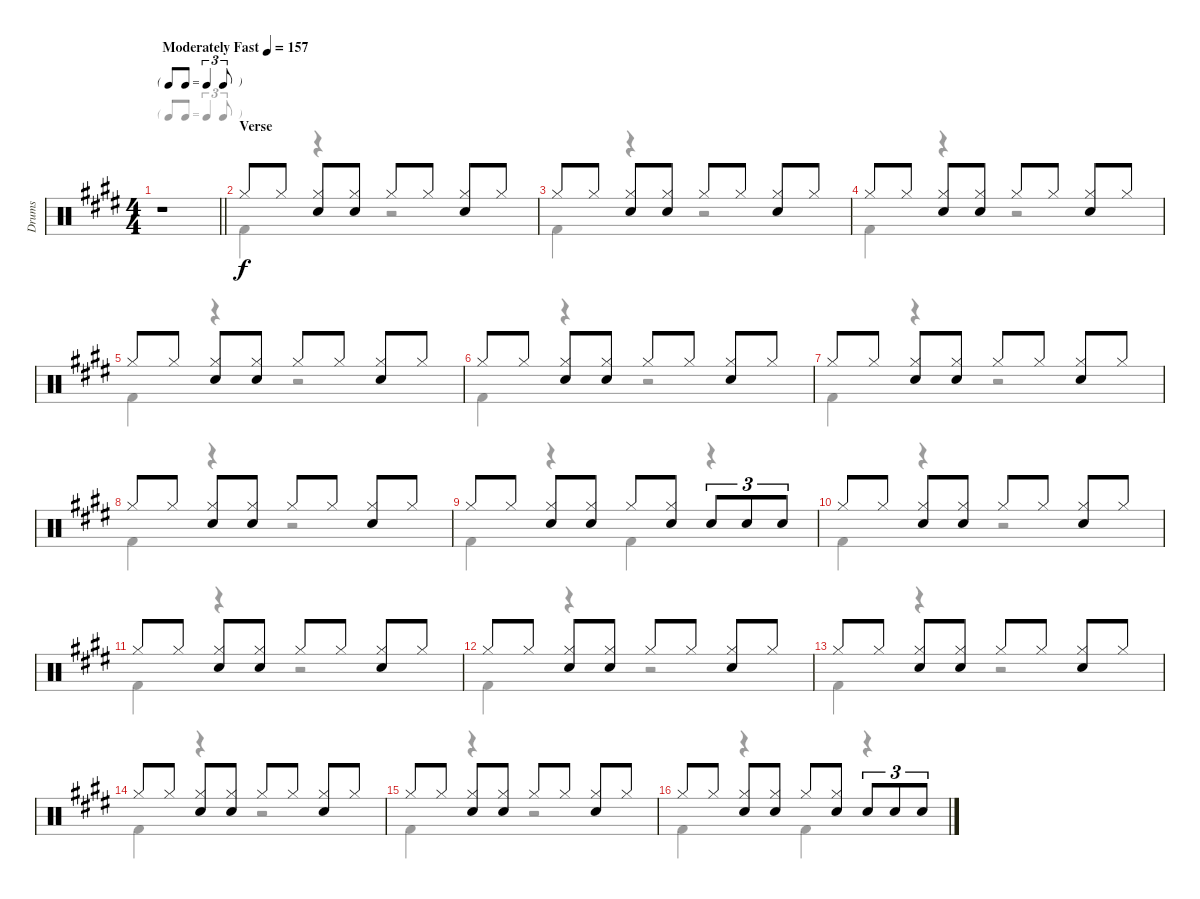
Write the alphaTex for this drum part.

\track ("Drums" "Drums") {instrument percussion}
\staff {score}
\articulation defaults
\voice
\ts (4 4)
\tf triplet8th
\tempo (157 "Moderately Fast")
\clef neutral
\barLineRight lightlight
\ks e
r.1{dy f} |
\section ("" "Verse")
"Hi-Hat (closed)".8 "Hi-Hat (closed)".8 ("Hi-Hat (closed)" "Snare (hit) 2").8 ("Hi-Hat (closed)" "Snare (hit) 2").8 "Hi-Hat (closed)".8 "Hi-Hat (closed)".8 ("Hi-Hat (closed)" "Snare (hit) 2").8 "Hi-Hat (closed)".8 |
"Hi-Hat (closed)".8 "Hi-Hat (closed)".8 ("Hi-Hat (closed)" "Snare (hit) 2").8 ("Hi-Hat (closed)" "Snare (hit) 2").8 "Hi-Hat (closed)".8 "Hi-Hat (closed)".8 ("Hi-Hat (closed)" "Snare (hit) 2").8 "Hi-Hat (closed)".8 |
"Hi-Hat (closed)".8 "Hi-Hat (closed)".8 ("Hi-Hat (closed)" "Snare (hit) 2").8 ("Hi-Hat (closed)" "Snare (hit) 2").8 "Hi-Hat (closed)".8 "Hi-Hat (closed)".8 ("Hi-Hat (closed)" "Snare (hit) 2").8 "Hi-Hat (closed)".8 |
"Hi-Hat (closed)".8 "Hi-Hat (closed)".8 ("Hi-Hat (closed)" "Snare (hit) 2").8 ("Hi-Hat (closed)" "Snare (hit) 2").8 "Hi-Hat (closed)".8 "Hi-Hat (closed)".8 ("Hi-Hat (closed)" "Snare (hit) 2").8 "Hi-Hat (closed)".8 |
"Hi-Hat (closed)".8 "Hi-Hat (closed)".8 ("Hi-Hat (closed)" "Snare (hit) 2").8 ("Hi-Hat (closed)" "Snare (hit) 2").8 "Hi-Hat (closed)".8 "Hi-Hat (closed)".8 ("Hi-Hat (closed)" "Snare (hit) 2").8 "Hi-Hat (closed)".8 |
"Hi-Hat (closed)".8 "Hi-Hat (closed)".8 ("Hi-Hat (closed)" "Snare (hit) 2").8 ("Hi-Hat (closed)" "Snare (hit) 2").8 "Hi-Hat (closed)".8 "Hi-Hat (closed)".8 ("Hi-Hat (closed)" "Snare (hit) 2").8 "Hi-Hat (closed)".8 |
"Hi-Hat (closed)".8 "Hi-Hat (closed)".8 ("Hi-Hat (closed)" "Snare (hit) 2").8 ("Hi-Hat (closed)" "Snare (hit) 2").8 "Hi-Hat (closed)".8 "Hi-Hat (closed)".8 ("Hi-Hat (closed)" "Snare (hit) 2").8 "Hi-Hat (closed)".8 |
"Hi-Hat (closed)".8 "Hi-Hat (closed)".8 ("Hi-Hat (closed)" "Snare (hit) 2").8 ("Hi-Hat (closed)" "Snare (hit) 2").8 "Hi-Hat (closed)".8 ("Hi-Hat (closed)" "Snare (hit) 2").8 "Snare (hit) 2".8{tu (3 2)} "Snare (hit) 2".8{tu (3 2)} "Snare (hit) 2".8{tu (3 2)} |
"Hi-Hat (closed)".8 "Hi-Hat (closed)".8 ("Hi-Hat (closed)" "Snare (hit) 2").8 ("Hi-Hat (closed)" "Snare (hit) 2").8 "Hi-Hat (closed)".8 "Hi-Hat (closed)".8 ("Hi-Hat (closed)" "Snare (hit) 2").8 "Hi-Hat (closed)".8 |
"Hi-Hat (closed)".8 "Hi-Hat (closed)".8 ("Hi-Hat (closed)" "Snare (hit) 2").8 ("Hi-Hat (closed)" "Snare (hit) 2").8 "Hi-Hat (closed)".8 "Hi-Hat (closed)".8 ("Hi-Hat (closed)" "Snare (hit) 2").8 "Hi-Hat (closed)".8 |
"Hi-Hat (closed)".8 "Hi-Hat (closed)".8 ("Hi-Hat (closed)" "Snare (hit) 2").8 ("Hi-Hat (closed)" "Snare (hit) 2").8 "Hi-Hat (closed)".8 "Hi-Hat (closed)".8 ("Hi-Hat (closed)" "Snare (hit) 2").8 "Hi-Hat (closed)".8 |
"Hi-Hat (closed)".8 "Hi-Hat (closed)".8 ("Hi-Hat (closed)" "Snare (hit) 2").8 ("Hi-Hat (closed)" "Snare (hit) 2").8 "Hi-Hat (closed)".8 "Hi-Hat (closed)".8 ("Hi-Hat (closed)" "Snare (hit) 2").8 "Hi-Hat (closed)".8 |
"Hi-Hat (closed)".8 "Hi-Hat (closed)".8 ("Hi-Hat (closed)" "Snare (hit) 2").8 ("Hi-Hat (closed)" "Snare (hit) 2").8 "Hi-Hat (closed)".8 "Hi-Hat (closed)".8 ("Hi-Hat (closed)" "Snare (hit) 2").8 "Hi-Hat (closed)".8 |
"Hi-Hat (closed)".8 "Hi-Hat (closed)".8 ("Hi-Hat (closed)" "Snare (hit) 2").8 ("Hi-Hat (closed)" "Snare (hit) 2").8 "Hi-Hat (closed)".8 "Hi-Hat (closed)".8 ("Hi-Hat (closed)" "Snare (hit) 2").8 "Hi-Hat (closed)".8 |
"Hi-Hat (closed)".8 "Hi-Hat (closed)".8 ("Hi-Hat (closed)" "Snare (hit) 2").8 ("Hi-Hat (closed)" "Snare (hit) 2").8 "Hi-Hat (closed)".8 ("Hi-Hat (closed)" "Snare (hit) 2").8 "Snare (hit) 2".8{tu (3 2)} "Snare (hit) 2".8{tu (3 2)} "Snare (hit) 2".8{tu (3 2)}
\voice
\clef neutral
\ottava regular
\simile none
\barLineRight lightlight
\ks e
r.1{dy f} |
"Kick (hit) 2".4 r.4 r.2 |
"Kick (hit) 2".4 r.4 r.2 |
"Kick (hit) 2".4 r.4 r.2 |
"Kick (hit) 2".4 r.4 r.2 |
"Kick (hit) 2".4 r.4 r.2 |
"Kick (hit) 2".4 r.4 r.2 |
"Kick (hit) 2".4 r.4 r.2 |
"Kick (hit) 2".4 r.4 "Kick (hit) 2".4 r.4 |
"Kick (hit) 2".4 r.4 r.2 |
"Kick (hit) 2".4 r.4 r.2 |
"Kick (hit) 2".4 r.4 r.2 |
"Kick (hit) 2".4 r.4 r.2 |
"Kick (hit) 2".4 r.4 r.2 |
"Kick (hit) 2".4 r.4 r.2 |
"Kick (hit) 2".4 r.4 "Kick (hit) 2".4 r.4
